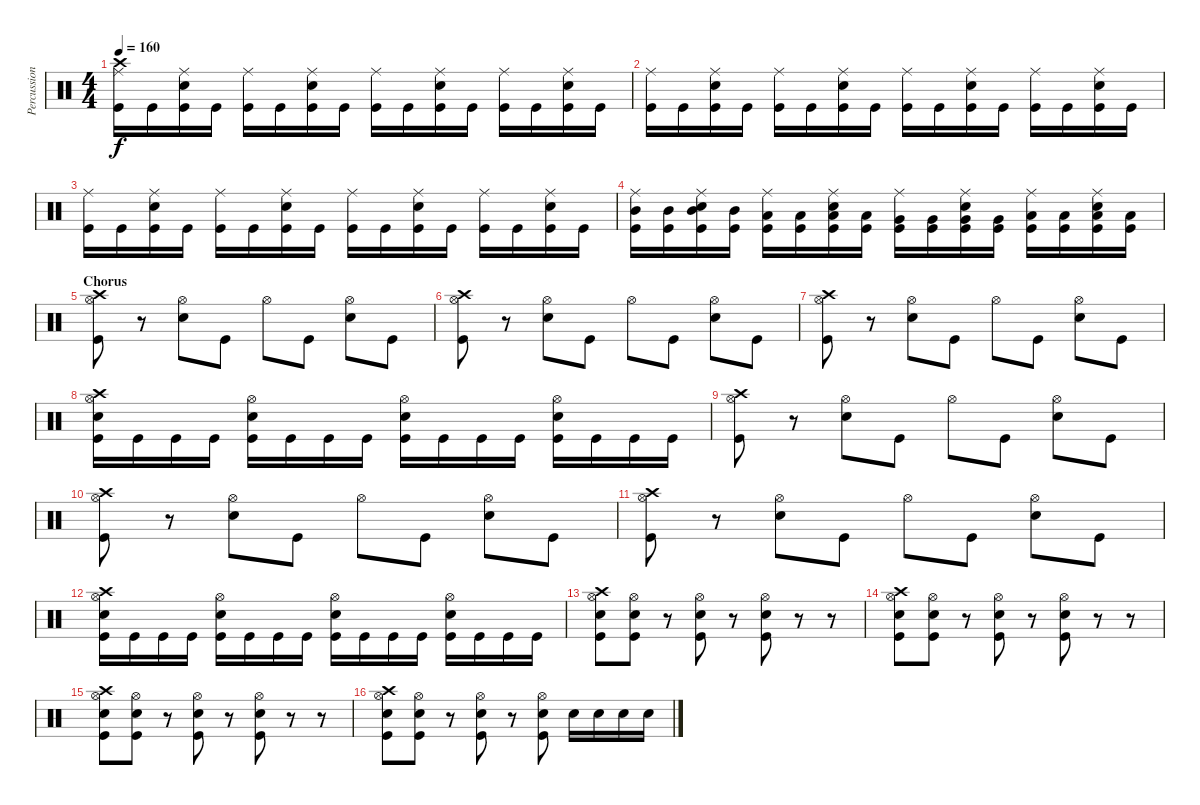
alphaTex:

\track ("Percussion" "Percussion") {instrument percussion}
\staff {score}
\articulation defaults
\ts (4 4)
\tempo 160
\clef neutral
\ks c
("Crash high (hit)" "Ride (middle)" "Kick (hit)").16{dy f} "Kick (hit)".16 ("Electric Snare (hit)" "Ride (middle)" "Kick (hit)").16 "Kick (hit)".16 ("Ride (middle)" "Kick (hit)").16 "Kick (hit)".16 ("Electric Snare (hit)" "Ride (middle)" "Kick (hit)").16 "Kick (hit)".16 ("Ride (middle)" "Kick (hit)").16 "Kick (hit)".16 ("Electric Snare (hit)" "Ride (middle)" "Kick (hit)").16 "Kick (hit)".16 ("Ride (middle)" "Kick (hit)").16 "Kick (hit)".16 ("Electric Snare (hit)" "Ride (middle)" "Kick (hit)").16 "Kick (hit)".16 |
("Ride (middle)" "Kick (hit)").16 "Kick (hit)".16 ("Electric Snare (hit)" "Ride (middle)" "Kick (hit)").16 "Kick (hit)".16 ("Ride (middle)" "Kick (hit)").16 "Kick (hit)".16 ("Electric Snare (hit)" "Ride (middle)" "Kick (hit)").16 "Kick (hit)".16 ("Ride (middle)" "Kick (hit)").16 "Kick (hit)".16 ("Electric Snare (hit)" "Ride (middle)" "Kick (hit)").16 "Kick (hit)".16 ("Ride (middle)" "Kick (hit)").16 "Kick (hit)".16 ("Electric Snare (hit)" "Ride (middle)" "Kick (hit)").16 "Kick (hit)".16 |
("Ride (middle)" "Kick (hit)").16 "Kick (hit)".16 ("Electric Snare (hit)" "Ride (middle)" "Kick (hit)").16 "Kick (hit)".16 ("Ride (middle)" "Kick (hit)").16 "Kick (hit)".16 ("Electric Snare (hit)" "Ride (middle)" "Kick (hit)").16 "Kick (hit)".16 ("Ride (middle)" "Kick (hit)").16 "Kick (hit)".16 ("Electric Snare (hit)" "Ride (middle)" "Kick (hit)").16 "Kick (hit)".16 ("Ride (middle)" "Kick (hit)").16 "Kick (hit)".16 ("Electric Snare (hit)" "Ride (middle)" "Kick (hit)").16 "Kick (hit)".16 |
("Ride (middle)" "Mid Tom (hit)" "Kick (hit)").16 ("Mid Tom (hit)" "Kick (hit)").16 ("Electric Snare (hit)" "Ride (middle)" "Mid Tom (hit)" "Kick (hit)").16 ("Mid Tom (hit)" "Kick (hit)").16 ("Ride (middle)" "Low Tom (hit)" "Kick (hit)").16 ("Low Tom (hit)" "Kick (hit)").16 ("Electric Snare (hit)" "Ride (middle)" "Low Tom (hit)" "Kick (hit)").16 ("Low Tom (hit)" "Kick (hit)").16 ("Ride (middle)" "Very Low Tom (hit)" "Kick (hit)").16 ("Very Low Tom (hit)" "Kick (hit)").16 ("Electric Snare (hit)" "Ride (middle)" "Very Low Tom (hit)" "Kick (hit)").16 ("Very Low Tom (hit)" "Kick (hit)").16 ("Ride (middle)" "Low Floor Tom (hit)" "Kick (hit)").16 ("Low Floor Tom (hit)" "Kick (hit)").16 ("Electric Snare (hit)" "Ride (middle)" "Low Floor Tom (hit)" "Kick (hit)").16 ("Low Floor Tom (hit)" "Kick (hit)").16 |
\section ("" "Chorus")
("Crash high (hit)" "Hi-Hat (open)" "Kick (hit)").8 r.8 ("Electric Snare (hit)" "Hi-Hat (open)").8 "Kick (hit)".8 "Hi-Hat (open)".8 "Kick (hit)".8 ("Hi-Hat (open)" "Electric Snare (hit)").8 "Kick (hit)".8 |
("Crash high (hit)" "Hi-Hat (open)" "Kick (hit)").8 r.8 ("Electric Snare (hit)" "Hi-Hat (open)").8 "Kick (hit)".8 "Hi-Hat (open)".8 "Kick (hit)".8 ("Hi-Hat (open)" "Electric Snare (hit)").8 "Kick (hit)".8 |
("Crash high (hit)" "Hi-Hat (open)" "Kick (hit)").8 r.8 ("Electric Snare (hit)" "Hi-Hat (open)").8 "Kick (hit)".8 "Hi-Hat (open)".8 "Kick (hit)".8 ("Hi-Hat (open)" "Electric Snare (hit)").8 "Kick (hit)".8 |
("Crash high (hit)" "Hi-Hat (open)" "Electric Snare (hit)" "Kick (hit)").16 "Kick (hit)".16 "Kick (hit)".16 "Kick (hit)".16 ("Hi-Hat (open)" "Electric Snare (hit)" "Kick (hit)").16 "Kick (hit)".16 "Kick (hit)".16 "Kick (hit)".16 ("Hi-Hat (open)" "Electric Snare (hit)" "Kick (hit)").16 "Kick (hit)".16 "Kick (hit)".16 "Kick (hit)".16 ("Hi-Hat (open)" "Electric Snare (hit)" "Kick (hit)").16 "Kick (hit)".16 "Kick (hit)".16 "Kick (hit)".16 |
("Crash high (hit)" "Hi-Hat (open)" "Kick (hit)").8 r.8 ("Electric Snare (hit)" "Hi-Hat (open)").8 "Kick (hit)".8 "Hi-Hat (open)".8 "Kick (hit)".8 ("Hi-Hat (open)" "Electric Snare (hit)").8 "Kick (hit)".8 |
("Crash high (hit)" "Hi-Hat (open)" "Kick (hit)").8 r.8 ("Electric Snare (hit)" "Hi-Hat (open)").8 "Kick (hit)".8 "Hi-Hat (open)".8 "Kick (hit)".8 ("Hi-Hat (open)" "Electric Snare (hit)").8 "Kick (hit)".8 |
("Crash high (hit)" "Hi-Hat (open)" "Kick (hit)").8 r.8 ("Electric Snare (hit)" "Hi-Hat (open)").8 "Kick (hit)".8 "Hi-Hat (open)".8 "Kick (hit)".8 ("Hi-Hat (open)" "Electric Snare (hit)").8 "Kick (hit)".8 |
("Crash high (hit)" "Hi-Hat (open)" "Electric Snare (hit)" "Kick (hit)").16 "Kick (hit)".16 "Kick (hit)".16 "Kick (hit)".16 ("Hi-Hat (open)" "Electric Snare (hit)" "Kick (hit)").16 "Kick (hit)".16 "Kick (hit)".16 "Kick (hit)".16 ("Hi-Hat (open)" "Electric Snare (hit)" "Kick (hit)").16 "Kick (hit)".16 "Kick (hit)".16 "Kick (hit)".16 ("Hi-Hat (open)" "Electric Snare (hit)" "Kick (hit)").16 "Kick (hit)".16 "Kick (hit)".16 "Kick (hit)".16 |
("Crash high (hit)" "Hi-Hat (open)" "Electric Snare (hit)" "Kick (hit)").8 ("Hi-Hat (open)" "Electric Snare (hit)" "Kick (hit)").8 r.8 ("Hi-Hat (open)" "Electric Snare (hit)" "Kick (hit)").8 r.8 ("Hi-Hat (open)" "Electric Snare (hit)" "Kick (hit)").8 r.8 r.8 |
("Crash high (hit)" "Hi-Hat (open)" "Electric Snare (hit)" "Kick (hit)").8 ("Hi-Hat (open)" "Electric Snare (hit)" "Kick (hit)").8 r.8 ("Hi-Hat (open)" "Electric Snare (hit)" "Kick (hit)").8 r.8 ("Hi-Hat (open)" "Electric Snare (hit)" "Kick (hit)").8 r.8 r.8 |
("Crash high (hit)" "Hi-Hat (open)" "Electric Snare (hit)" "Kick (hit)").8 ("Hi-Hat (open)" "Electric Snare (hit)" "Kick (hit)").8 r.8 ("Hi-Hat (open)" "Electric Snare (hit)" "Kick (hit)").8 r.8 ("Hi-Hat (open)" "Electric Snare (hit)" "Kick (hit)").8 r.8 r.8 |
("Crash high (hit)" "Hi-Hat (open)" "Electric Snare (hit)" "Kick (hit)").8 ("Hi-Hat (open)" "Electric Snare (hit)" "Kick (hit)").8 r.8 ("Hi-Hat (open)" "Electric Snare (hit)" "Kick (hit)").8 r.8 ("Hi-Hat (open)" "Electric Snare (hit)" "Kick (hit)").8 "Electric Snare (hit)".16 "Electric Snare (hit)".16 "Electric Snare (hit)".16 "Electric Snare (hit)".16
